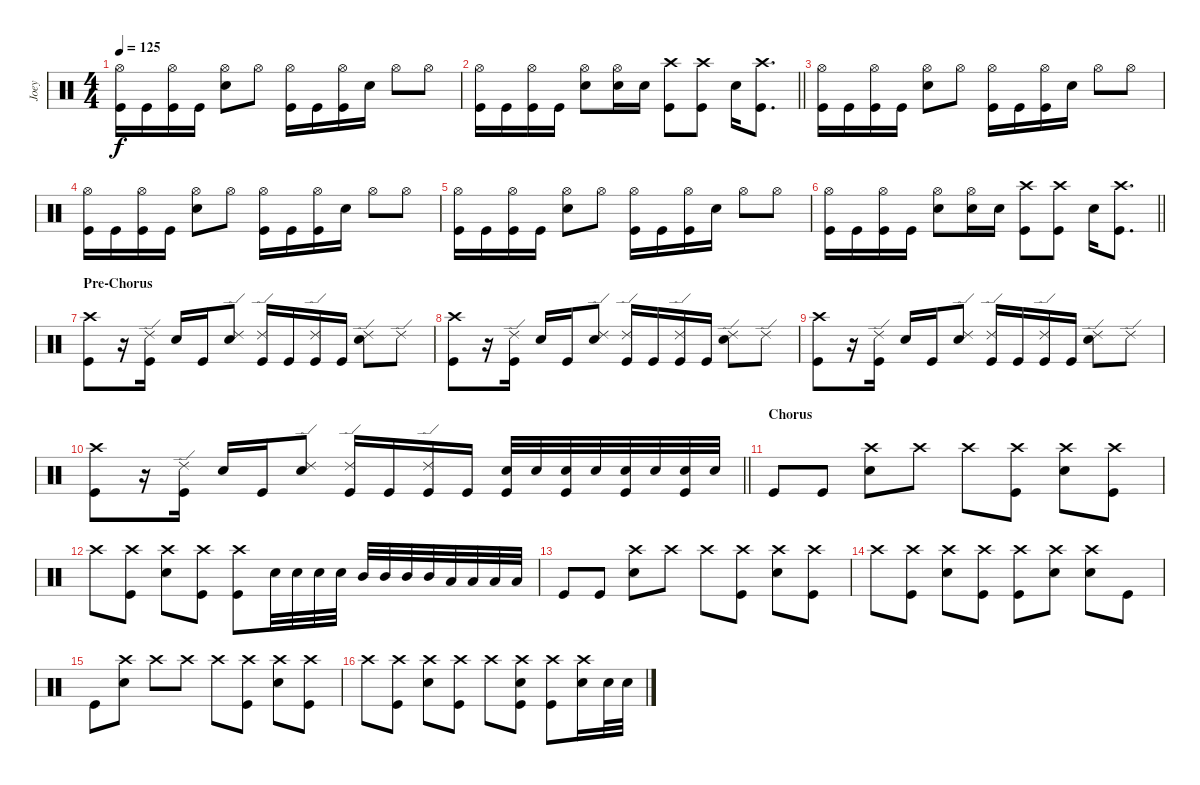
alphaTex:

\track ("Joey" "Joey") {instrument percussion}
\staff {score}
\articulation defaults
\ts (4 4)
\tempo 125
\clef neutral
\ks c
("Hi-Hat (open)" "Kick (hit)").16{dy f} "Kick (hit)".16 ("Hi-Hat (open)" "Kick (hit)").16 "Kick (hit)".16 ("Hi-Hat (open)" "Snare (hit) 2").8 "Hi-Hat (open)".8 ("Hi-Hat (open)" "Kick (hit)").16 "Kick (hit)".16 ("Hi-Hat (open)" "Kick (hit)").16 "Snare (hit) 2".16 "Hi-Hat (open)".8 "Hi-Hat (open)".8 |
\barLineRight lightlight
("Hi-Hat (open)" "Kick (hit)").16 "Kick (hit)".16 ("Hi-Hat (open)" "Kick (hit)").16 "Kick (hit)".16 ("Hi-Hat (open)" "Snare (hit) 2").8 ("Hi-Hat (open)" "Snare (hit) 2").16 "Snare (hit) 2".16 ("Crash high (hit)" "Kick (hit)").8 ("Crash high (hit)" "Kick (hit)").8 "Snare (hit) 2".16 ("Crash high (hit)" "Kick (hit)").8{d} |
("Hi-Hat (open)" "Kick (hit)").16 "Kick (hit)".16 ("Hi-Hat (open)" "Kick (hit)").16 "Kick (hit)".16 ("Hi-Hat (open)" "Snare (hit) 2").8 "Hi-Hat (open)".8 ("Hi-Hat (open)" "Kick (hit)").16 "Kick (hit)".16 ("Hi-Hat (open)" "Kick (hit)").16 "Snare (hit) 2".16 "Hi-Hat (open)".8 "Hi-Hat (open)".8 |
("Hi-Hat (open)" "Kick (hit)").16 "Kick (hit)".16 ("Hi-Hat (open)" "Kick (hit)").16 "Kick (hit)".16 ("Hi-Hat (open)" "Snare (hit) 2").8 "Hi-Hat (open)".8 ("Hi-Hat (open)" "Kick (hit)").16 "Kick (hit)".16 ("Hi-Hat (open)" "Kick (hit)").16 "Snare (hit) 2".16 "Hi-Hat (open)".8 "Hi-Hat (open)".8 |
("Hi-Hat (open)" "Kick (hit)").16 "Kick (hit)".16 ("Hi-Hat (open)" "Kick (hit)").16 "Kick (hit)".16 ("Hi-Hat (open)" "Snare (hit) 2").8 "Hi-Hat (open)".8 ("Hi-Hat (open)" "Kick (hit)").16 "Kick (hit)".16 ("Hi-Hat (open)" "Kick (hit)").16 "Snare (hit) 2".16 "Hi-Hat (open)".8 "Hi-Hat (open)".8 |
\barLineRight lightlight
("Hi-Hat (open)" "Kick (hit)").16 "Kick (hit)".16 ("Hi-Hat (open)" "Kick (hit)").16 "Kick (hit)".16 ("Hi-Hat (open)" "Snare (hit) 2").8 ("Hi-Hat (open)" "Snare (hit) 2").16 "Snare (hit) 2".16 ("Crash high (hit)" "Kick (hit)").8 ("Crash high (hit)" "Kick (hit)").8 "Snare (hit) 2".16 ("Crash high (hit)" "Kick (hit)").8{d} |
\section ("" "Pre-Chorus")
("Crash high (hit)" "Kick (hit)").8 r.16 ("Ride (edge) 2" "Kick (hit)").16 "Snare (hit) 2".16 "Kick (hit)".16 ("Ride (edge) 2" "Snare (hit) 2").8 ("Ride (edge) 2" "Kick (hit)").16 "Kick (hit)".16 ("Ride (edge) 2" "Kick (hit)").16 "Kick (hit)".16 ("Ride (edge) 2" "Snare (hit) 2").8 "Ride (edge) 2".8 |
("Crash high (hit)" "Kick (hit)").8 r.16 ("Ride (edge) 2" "Kick (hit)").16 "Snare (hit) 2".16 "Kick (hit)".16 ("Ride (edge) 2" "Snare (hit) 2").8 ("Ride (edge) 2" "Kick (hit)").16 "Kick (hit)".16 ("Ride (edge) 2" "Kick (hit)").16 "Kick (hit)".16 ("Ride (edge) 2" "Snare (hit) 2").8 "Ride (edge) 2".8 |
("Crash high (hit)" "Kick (hit)").8 r.16 ("Ride (edge) 2" "Kick (hit)").16 "Snare (hit) 2".16 "Kick (hit)".16 ("Ride (edge) 2" "Snare (hit) 2").8 ("Ride (edge) 2" "Kick (hit)").16 "Kick (hit)".16 ("Ride (edge) 2" "Kick (hit)").16 "Kick (hit)".16 ("Ride (edge) 2" "Snare (hit) 2").8 "Ride (edge) 2".8 |
\barLineRight lightlight
("Crash high (hit)" "Kick (hit)").8 r.16 ("Ride (edge) 2" "Kick (hit)").16 "Snare (hit) 2".16 "Kick (hit)".16 ("Ride (edge) 2" "Snare (hit) 2").8 ("Ride (edge) 2" "Kick (hit)").16 "Kick (hit)".16 ("Ride (edge) 2" "Kick (hit)").16 "Kick (hit)".16 ("Snare (hit) 2" "Kick (hit)").32 "Snare (hit) 2".32 ("Snare (hit) 2" "Kick (hit)").32 "Snare (hit) 2".32 ("Snare (hit) 2" "Kick (hit)").32 "Snare (hit) 2".32 ("Snare (hit) 2" "Kick (hit)").32 "Snare (hit) 2".32 |
\section ("" "Chorus")
"Kick (hit)".8 "Kick (hit)".8 ("Crash high (hit)" "Snare (hit) 2").8 "Crash high (hit)".8 "Crash high (hit)".8 ("Crash high (hit)" "Kick (hit)").8 ("Crash high (hit)" "Snare (hit) 2").8 ("Crash high (hit)" "Kick (hit)").8 |
"Crash high (hit)".8 ("Crash high (hit)" "Kick (hit)").8 ("Crash high (hit)" "Snare (hit) 2").8 ("Crash high (hit)" "Kick (hit)").8 ("Crash high (hit)" "Kick (hit)").8 "Snare (hit) 2".32 "Snare (hit) 2".32 "Snare (hit) 2".32 "Snare (hit) 2".32 "Mid Tom (hit)".32 "Mid Tom (hit)".32 "Mid Tom (hit)".32 "Mid Tom (hit)".32 "Low Tom (hit)".32 "Low Tom (hit)".32 "Low Tom (hit)".32 "Low Tom (hit)".32 |
"Kick (hit)".8 "Kick (hit)".8 ("Crash high (hit)" "Snare (hit) 2").8 "Crash high (hit)".8 "Crash high (hit)".8 ("Crash high (hit)" "Kick (hit)").8 ("Crash high (hit)" "Snare (hit) 2").8 ("Crash high (hit)" "Kick (hit)").8 |
"Crash high (hit)".8 ("Crash high (hit)" "Kick (hit)").8 ("Crash high (hit)" "Snare (hit) 2").8 ("Crash high (hit)" "Kick (hit)").8 ("Crash high (hit)" "Kick (hit)").8 ("Crash high (hit)" "Snare (hit) 2").8 ("Crash high (hit)" "Snare (hit) 2").8 "Kick (hit)".8 |
"Kick (hit)".8 ("Crash high (hit)" "Snare (hit) 2").8 "Crash high (hit)".8 "Crash high (hit)".8 "Crash high (hit)".8 ("Crash high (hit)" "Kick (hit)").8 ("Crash high (hit)" "Snare (hit) 2").8 ("Crash high (hit)" "Kick (hit)").8 |
"Crash high (hit)".8 ("Crash high (hit)" "Kick (hit)").8 ("Crash high (hit)" "Snare (hit) 2").8 ("Crash high (hit)" "Kick (hit)").8 "Crash high (hit)".8 ("Crash high (hit)" "Snare (hit) 2" "Kick (hit)").8 ("Crash high (hit)" "Kick (hit)").8 ("Crash high (hit)" "Snare (hit) 2").16 "Snare (hit) 2".32 "Snare (hit) 2".32
